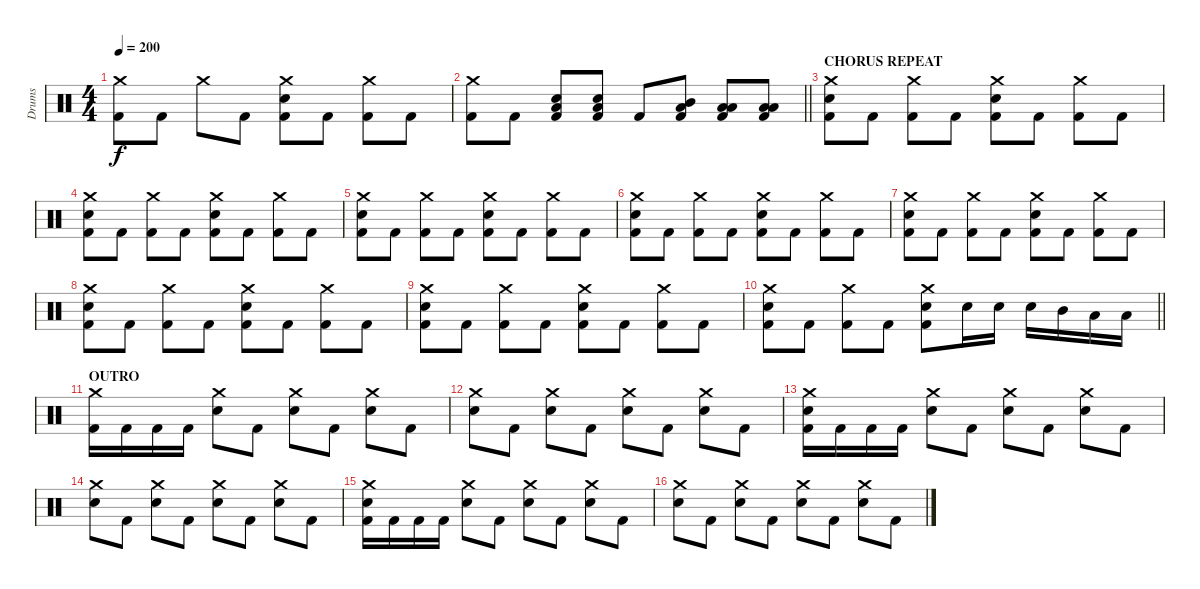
\track ("Drums" "Drums") {instrument percussion}
\staff {score}
\articulation defaults
\ts (4 4)
\tempo 200
\clef neutral
\ks c
("Crash medium (hit)" "Kick (hit) 2").8{dy f} "Kick (hit) 2".8 "Crash medium (hit)".8 "Kick (hit) 2".8 ("Crash medium (hit)" "Electric Snare (hit)" "Kick (hit) 2").8 "Kick (hit) 2".8 ("Crash medium (hit)" "Kick (hit) 2").8 "Kick (hit) 2".8 |
\barLineRight lightlight
("Crash medium (hit)" "Kick (hit) 2").8 "Kick (hit) 2".8 ("Electric Snare (hit)" "Low Floor Tom (hit)" "Kick (hit) 2").8 ("Electric Snare (hit)" "Low Floor Tom (hit)" "Kick (hit) 2").8 "Kick (hit) 2".8 ("Mid Tom (hit)" "Low Tom (hit)" "Kick (hit) 2").8 ("Low Tom (hit)" "Low Floor Tom (hit)" "Kick (hit) 2").8 ("Low Floor Tom (hit)" "Low Floor Tom (hit)" "Kick (hit) 2").8 |
\section ("" "CHORUS REPEAT")
("Crash medium (hit)" "Electric Snare (hit)" "Kick (hit) 2").8 "Kick (hit) 2".8 ("Crash medium (hit)" "Kick (hit) 2").8 "Kick (hit) 2".8 ("Crash medium (hit)" "Electric Snare (hit)" "Kick (hit) 2").8 "Kick (hit) 2".8 ("Crash medium (hit)" "Kick (hit) 2").8 "Kick (hit) 2".8 |
("Crash medium (hit)" "Electric Snare (hit)" "Kick (hit) 2").8 "Kick (hit) 2".8 ("Crash medium (hit)" "Kick (hit) 2").8 "Kick (hit) 2".8 ("Crash medium (hit)" "Electric Snare (hit)" "Kick (hit) 2").8 "Kick (hit) 2".8 ("Crash medium (hit)" "Kick (hit) 2").8 "Kick (hit) 2".8 |
("Crash medium (hit)" "Electric Snare (hit)" "Kick (hit) 2").8 "Kick (hit) 2".8 ("Crash medium (hit)" "Kick (hit) 2").8 "Kick (hit) 2".8 ("Crash medium (hit)" "Electric Snare (hit)" "Kick (hit) 2").8 "Kick (hit) 2".8 ("Crash medium (hit)" "Kick (hit) 2").8 "Kick (hit) 2".8 |
("Crash medium (hit)" "Electric Snare (hit)" "Kick (hit) 2").8 "Kick (hit) 2".8 ("Crash medium (hit)" "Kick (hit) 2").8 "Kick (hit) 2".8 ("Crash medium (hit)" "Electric Snare (hit)" "Kick (hit) 2").8 "Kick (hit) 2".8 ("Crash medium (hit)" "Kick (hit) 2").8 "Kick (hit) 2".8 |
("Crash medium (hit)" "Electric Snare (hit)" "Kick (hit) 2").8 "Kick (hit) 2".8 ("Crash medium (hit)" "Kick (hit) 2").8 "Kick (hit) 2".8 ("Crash medium (hit)" "Electric Snare (hit)" "Kick (hit) 2").8 "Kick (hit) 2".8 ("Crash medium (hit)" "Kick (hit) 2").8 "Kick (hit) 2".8 |
("Crash medium (hit)" "Electric Snare (hit)" "Kick (hit) 2").8 "Kick (hit) 2".8 ("Crash medium (hit)" "Kick (hit) 2").8 "Kick (hit) 2".8 ("Crash medium (hit)" "Electric Snare (hit)" "Kick (hit) 2").8 "Kick (hit) 2".8 ("Crash medium (hit)" "Kick (hit) 2").8 "Kick (hit) 2".8 |
("Crash medium (hit)" "Electric Snare (hit)" "Kick (hit) 2").8 "Kick (hit) 2".8 ("Crash medium (hit)" "Kick (hit) 2").8 "Kick (hit) 2".8 ("Crash medium (hit)" "Electric Snare (hit)" "Kick (hit) 2").8 "Kick (hit) 2".8 ("Crash medium (hit)" "Kick (hit) 2").8 "Kick (hit) 2".8 |
\barLineRight lightlight
("Crash medium (hit)" "Electric Snare (hit)" "Kick (hit) 2").8 "Kick (hit) 2".8 ("Crash medium (hit)" "Kick (hit) 2").8 "Kick (hit) 2".8 ("Crash medium (hit)" "Electric Snare (hit)" "Kick (hit) 2").8 "Electric Snare (hit)".16 "Electric Snare (hit)".16 "Electric Snare (hit)".16 "Mid Tom (hit)".16 "Low Tom (hit)".16 "Low Floor Tom (hit)".16 |
\section ("" "OUTRO")
("Crash medium (hit)" "Kick (hit) 2").16 "Kick (hit) 2".16 "Kick (hit) 2".16 "Kick (hit) 2".16 ("Crash medium (hit)" "Electric Snare (hit)").8 "Kick (hit) 2".8 ("Crash medium (hit)" "Electric Snare (hit)").8 "Kick (hit) 2".8 ("Crash medium (hit)" "Electric Snare (hit)").8 "Kick (hit) 2".8 |
("Crash medium (hit)" "Electric Snare (hit)").8 "Kick (hit) 2".8 ("Crash medium (hit)" "Electric Snare (hit)").8 "Kick (hit) 2".8 ("Crash medium (hit)" "Electric Snare (hit)").8 "Kick (hit) 2".8 ("Crash medium (hit)" "Electric Snare (hit)").8 "Kick (hit) 2".8 |
("Crash medium (hit)" "Electric Snare (hit)" "Kick (hit) 2").16 "Kick (hit) 2".16 "Kick (hit) 2".16 "Kick (hit) 2".16 ("Crash medium (hit)" "Electric Snare (hit)").8 "Kick (hit) 2".8 ("Crash medium (hit)" "Electric Snare (hit)").8 "Kick (hit) 2".8 ("Crash medium (hit)" "Electric Snare (hit)").8 "Kick (hit) 2".8 |
("Crash medium (hit)" "Electric Snare (hit)").8 "Kick (hit) 2".8 ("Crash medium (hit)" "Electric Snare (hit)").8 "Kick (hit) 2".8 ("Crash medium (hit)" "Electric Snare (hit)").8 "Kick (hit) 2".8 ("Crash medium (hit)" "Electric Snare (hit)").8 "Kick (hit) 2".8 |
("Crash medium (hit)" "Electric Snare (hit)" "Kick (hit) 2").16 "Kick (hit) 2".16 "Kick (hit) 2".16 "Kick (hit) 2".16 ("Crash medium (hit)" "Electric Snare (hit)").8 "Kick (hit) 2".8 ("Crash medium (hit)" "Electric Snare (hit)").8 "Kick (hit) 2".8 ("Crash medium (hit)" "Electric Snare (hit)").8 "Kick (hit) 2".8 |
("Crash medium (hit)" "Electric Snare (hit)").8 "Kick (hit) 2".8 ("Crash medium (hit)" "Electric Snare (hit)").8 "Kick (hit) 2".8 ("Crash medium (hit)" "Electric Snare (hit)").8 "Kick (hit) 2".8 ("Crash medium (hit)" "Electric Snare (hit)").8 "Kick (hit) 2".8
